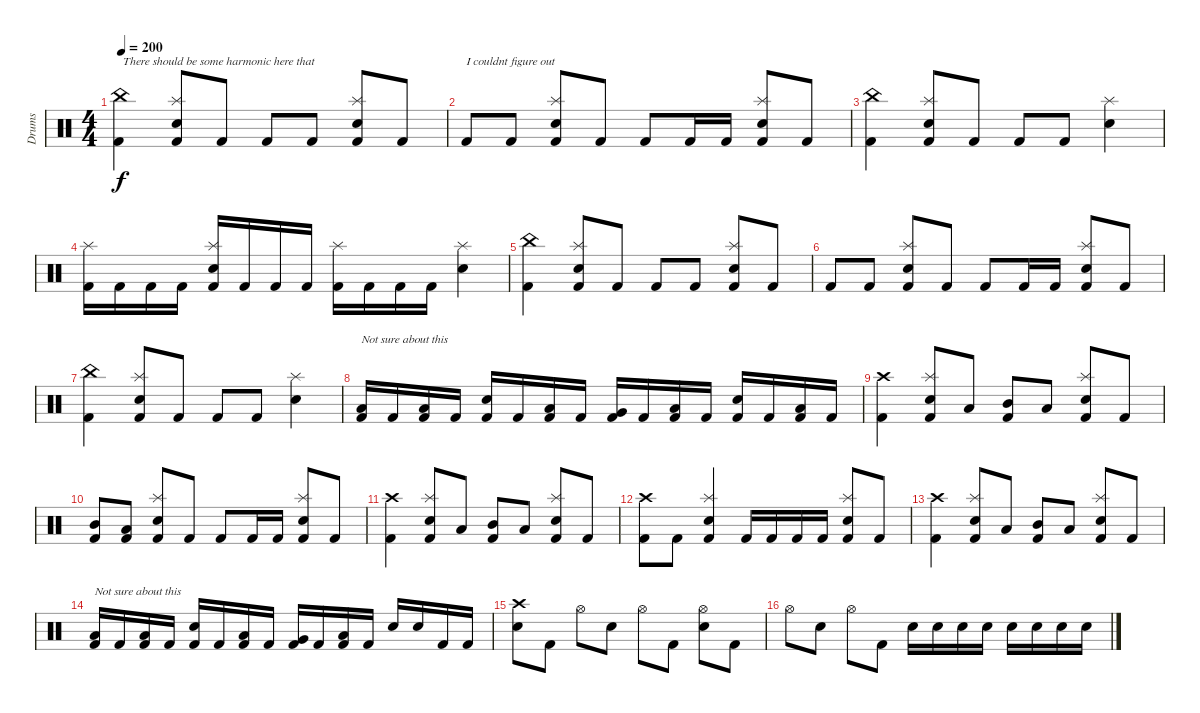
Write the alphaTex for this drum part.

\track ("Drums" "Drums") {instrument percussion}
\staff {score}
\articulation defaults
\ts (4 4)
\tempo 200
\clef neutral
\ks c
("China (hit)" "Kick (hit) 2").4{txt "There should be some harmonic here that" dy f} ("Splash (hit)" "Snare (hit) 2" "Kick (hit) 2").8 "Kick (hit) 2".8 "Kick (hit) 2".8 "Kick (hit) 2".8 ("Splash (hit)" "Snare (hit) 2" "Kick (hit) 2").8 "Kick (hit) 2".8 |
"Kick (hit) 2".8{txt "I couldnt figure out"} "Kick (hit) 2".8 ("Splash (hit)" "Snare (hit) 2" "Kick (hit) 2").8 "Kick (hit) 2".8 "Kick (hit) 2".8 "Kick (hit) 2".16 "Kick (hit) 2".16 ("Splash (hit)" "Snare (hit) 2" "Kick (hit) 2").8 "Kick (hit) 2".8 |
("China (hit)" "Kick (hit) 2").4 ("Splash (hit)" "Snare (hit) 2" "Kick (hit) 2").8 "Kick (hit) 2".8 "Kick (hit) 2".8 "Kick (hit) 2".8 ("Splash (hit)" "Snare (hit) 2").4 |
("Splash (hit)" "Kick (hit) 2").16 "Kick (hit) 2".16 "Kick (hit) 2".16 "Kick (hit) 2".16 ("Splash (hit)" "Snare (hit) 2" "Kick (hit) 2").16 "Kick (hit) 2".16 "Kick (hit) 2".16 "Kick (hit) 2".16 ("Splash (hit)" "Kick (hit) 2").16 "Kick (hit) 2".16 "Kick (hit) 2".16 "Kick (hit) 2".16 ("Splash (hit)" "Snare (hit) 2").4 |
("China (hit)" "Kick (hit) 2").4 ("Splash (hit)" "Snare (hit) 2" "Kick (hit) 2").8 "Kick (hit) 2".8 "Kick (hit) 2".8 "Kick (hit) 2".8 ("Splash (hit)" "Snare (hit) 2" "Kick (hit) 2").8 "Kick (hit) 2".8 |
"Kick (hit) 2".8 "Kick (hit) 2".8 ("Splash (hit)" "Snare (hit) 2" "Kick (hit) 2").8 "Kick (hit) 2".8 "Kick (hit) 2".8 "Kick (hit) 2".16 "Kick (hit) 2".16 ("Splash (hit)" "Snare (hit) 2" "Kick (hit) 2").8 "Kick (hit) 2".8 |
("China (hit)" "Kick (hit) 2").4 ("Splash (hit)" "Snare (hit) 2" "Kick (hit) 2").8 "Kick (hit) 2".8 "Kick (hit) 2".8 "Kick (hit) 2".8 ("Splash (hit)" "Snare (hit) 2").4 |
("Low Tom (hit)" "Kick (hit) 2").16{txt "Not sure about this"} "Kick (hit) 2".16 ("Low Tom (hit)" "Kick (hit) 2").16 "Kick (hit) 2".16 ("Snare (hit) 2" "Kick (hit) 2").16 "Kick (hit) 2".16 ("Low Tom (hit)" "Kick (hit) 2").16 "Kick (hit) 2".16 ("Very Low Tom (hit)" "Kick (hit) 2").16 "Kick (hit) 2".16 ("Low Tom (hit)" "Kick (hit) 2").16 "Kick (hit) 2".16 ("Snare (hit) 2" "Kick (hit) 2").16 "Kick (hit) 2".16 ("Low Tom (hit)" "Kick (hit) 2").16 "Kick (hit) 2".16 |
("Crash high (hit)" "Kick (hit) 2").4 ("Splash (hit)" "Snare (hit) 2" "Kick (hit) 2").8 "Low Tom (hit)".8 ("Mid Tom (hit)" "Kick (hit) 2").8 "Low Tom (hit)".8 ("Splash (hit)" "Snare (hit) 2" "Kick (hit) 2").8 "Kick (hit) 2".8 |
("Mid Tom (hit)" "Kick (hit) 2").8 ("Low Tom (hit)" "Kick (hit) 2").8 ("Splash (hit)" "Snare (hit) 2" "Kick (hit) 2").8 "Kick (hit) 2".8 "Kick (hit) 2".8 "Kick (hit) 2".16 "Kick (hit) 2".16 ("Splash (hit)" "Snare (hit) 2" "Kick (hit) 2").8 "Kick (hit) 2".8 |
("Crash high (hit)" "Kick (hit) 2").4 ("Splash (hit)" "Snare (hit) 2" "Kick (hit) 2").8 "Low Tom (hit)".8 ("Mid Tom (hit)" "Kick (hit) 2").8 "Low Tom (hit)".8 ("Splash (hit)" "Snare (hit) 2" "Kick (hit) 2").8 "Kick (hit) 2".8 |
("Crash high (hit)" "Kick (hit) 2").8 "Kick (hit) 2".8 ("Splash (hit)" "Snare (hit) 2" "Kick (hit) 2").4 "Kick (hit) 2".16 "Kick (hit) 2".16 "Kick (hit) 2".16 "Kick (hit) 2".16 ("Splash (hit)" "Snare (hit) 2" "Kick (hit) 2").8 "Kick (hit) 2".8 |
("Crash high (hit)" "Kick (hit) 2").4 ("Splash (hit)" "Snare (hit) 2" "Kick (hit) 2").8 "Low Tom (hit)".8 ("Mid Tom (hit)" "Kick (hit) 2").8 "Low Tom (hit)".8 ("Splash (hit)" "Snare (hit) 2" "Kick (hit) 2").8 "Kick (hit) 2".8 |
("Low Tom (hit)" "Kick (hit) 2").16{txt "Not sure about this"} "Kick (hit) 2".16 ("Low Tom (hit)" "Kick (hit) 2").16 "Kick (hit) 2".16 ("Snare (hit) 2" "Kick (hit) 2").16 "Kick (hit) 2".16 ("Low Tom (hit)" "Kick (hit) 2").16 "Kick (hit) 2".16 ("Very Low Tom (hit)" "Kick (hit) 2").16 "Kick (hit) 2".16 ("Low Tom (hit)" "Kick (hit) 2").16 "Kick (hit) 2".16 "Snare (hit) 2".16 "Snare (hit) 2".16 "Kick (hit) 2".16 "Kick (hit) 2".16 |
("Crash high (hit)" "Snare (hit) 2").8 "Kick (hit) 2".8 "Hi-Hat (open)".8 "Snare (hit) 2".8 "Hi-Hat (open)".8 "Kick (hit) 2".8 ("Snare (hit) 2" "Hi-Hat (open)").8 "Kick (hit) 2".8 |
"Hi-Hat (open)".8 "Snare (hit) 2".8 "Hi-Hat (open)".8 "Kick (hit) 2".8 "Snare (hit) 2".16 "Snare (hit) 2".16 "Snare (hit) 2".16 "Snare (hit) 2".16 "Snare (hit) 2".16 "Snare (hit) 2".16 "Snare (hit) 2".16 "Snare (hit) 2".16
